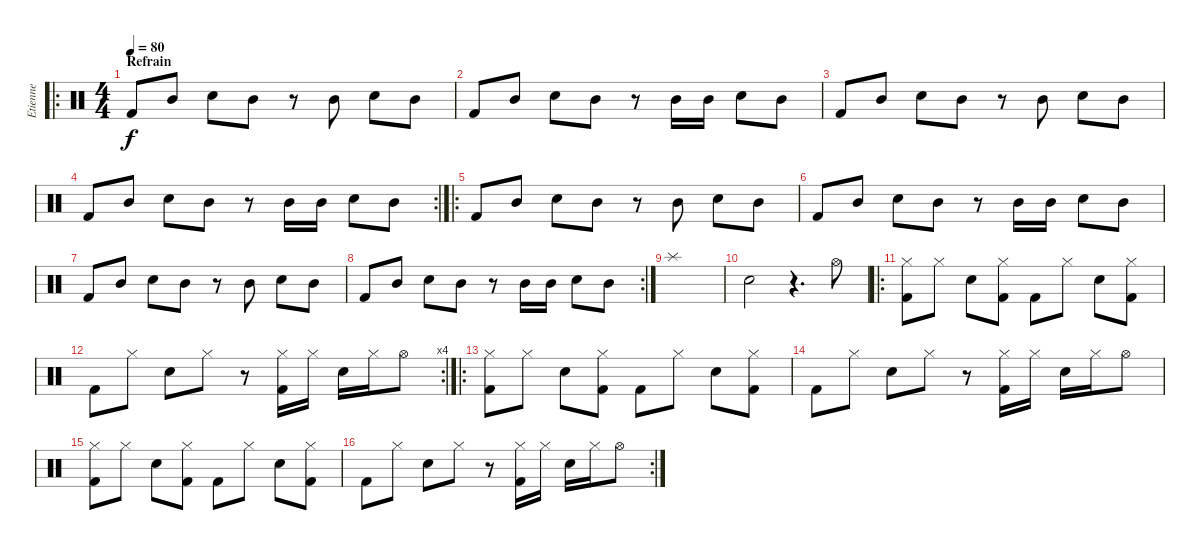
\track ("Etienne" "Etienne") {instrument percussion}
\staff {score}
\articulation defaults
\ro
\ts (4 4)
\section ("" "Refrain")
\tempo 80
\clef neutral
\ks c "Kick (hit) 2".8{dy f} "Mid Tom (hit)".8 "Snare (hit) 2".8 "Mid Tom (hit)".8
r.8 "Mid Tom (hit)".8 "Snare (hit) 2".8 "Mid Tom (hit)".8 |
"Kick (hit) 2".8 "Mid Tom (hit)".8 "Snare (hit) 2".8 "Mid Tom (hit)".8 r.8 "Mid Tom (hit)".16 "Mid Tom (hit)".16 "Snare (hit) 2".8 "Mid Tom (hit)".8 |
"Kick (hit) 2".8 "Mid Tom (hit)".8 "Snare (hit) 2".8 "Mid Tom (hit)".8 r.8 "Mid Tom (hit)".8 "Snare (hit) 2".8 "Mid Tom (hit)".8 |
\rc 2 "Kick (hit) 2".8 "Mid Tom (hit)".8 "Snare (hit) 2".8 "Mid Tom (hit)".8
r.8 "Mid Tom (hit)".16 "Mid Tom (hit)".16 "Snare (hit) 2".8 "Mid Tom (hit)".8 |
\ro "Kick (hit) 2".8 "Mid Tom (hit)".8 "Snare (hit) 2".8 "Mid Tom (hit)".8
r.8 "Mid Tom (hit)".8 "Snare (hit) 2".8 "Mid Tom (hit)".8 |
"Kick (hit) 2".8 "Mid Tom (hit)".8 "Snare (hit) 2".8 "Mid Tom (hit)".8 r.8 "Mid Tom (hit)".16 "Mid Tom (hit)".16 "Snare (hit) 2".8 "Mid Tom (hit)".8 |
"Kick (hit) 2".8 "Mid Tom (hit)".8 "Snare (hit) 2".8 "Mid Tom (hit)".8 r.8 "Mid Tom (hit)".8 "Snare (hit) 2".8 "Mid Tom (hit)".8 |
\rc 2 "Kick (hit) 2".8 "Mid Tom (hit)".8 "Snare (hit) 2".8 "Mid Tom (hit)".8
r.8 "Mid Tom (hit)".16 "Mid Tom (hit)".16 "Snare (hit) 2".8 "Mid Tom (hit)".8 |
"Splash (hit)".1 |
"Electric Snare (hit)".2 r.4{d} "Hi-Hat (open)".8 |
\ro
("Hi-Hat (closed)" "Kick (hit) 2").8 "Hi-Hat (closed)".8 "Snare (hit) 2".8 ("Hi-Hat (closed)" "Kick (hit) 2").8 "Kick (hit) 2".8 "Hi-Hat (closed)".8 "Snare (hit) 2".8 ("Hi-Hat (closed)" "Kick (hit) 2").8 |
\rc 4 "Kick (hit) 2".8 "Hi-Hat (closed)".8 "Snare (hit) 2".8 "Hi-Hat (closed)".8
r.8 ("Hi-Hat (closed)" "Kick (hit) 2").16 "Hi-Hat (closed)".16 "Snare (hit) 2".16 "Hi-Hat (closed)".16 "Hi-Hat (open)".8 |
\ro
("Hi-Hat (closed)" "Kick (hit) 2").8 "Hi-Hat (closed)".8 "Snare (hit) 2".8 ("Hi-Hat (closed)" "Kick (hit) 2").8 "Kick (hit) 2".8 "Hi-Hat (closed)".8 "Snare (hit) 2".8 ("Hi-Hat (closed)" "Kick (hit) 2").8 |
"Kick (hit) 2".8 "Hi-Hat (closed)".8 "Snare (hit) 2".8 "Hi-Hat (closed)".8 r.8 ("Hi-Hat (closed)" "Kick (hit) 2").16 "Hi-Hat (closed)".16 "Snare (hit) 2".16 "Hi-Hat (closed)".16 "Hi-Hat (open)".8 |
("Hi-Hat (closed)" "Kick (hit) 2").8 "Hi-Hat (closed)".8 "Snare (hit) 2".8 ("Hi-Hat (closed)" "Kick (hit) 2").8 "Kick (hit) 2".8 "Hi-Hat (closed)".8 "Snare (hit) 2".8 ("Hi-Hat (closed)" "Kick (hit) 2").8 |
\rc 2 "Kick (hit) 2".8 "Hi-Hat (closed)".8 "Snare (hit) 2".8 "Hi-Hat (closed)".8
r.8 ("Hi-Hat (closed)" "Kick (hit) 2").16 "Hi-Hat (closed)".16 "Snare (hit) 2".16 "Hi-Hat (closed)".16 "Hi-Hat (open)".8
